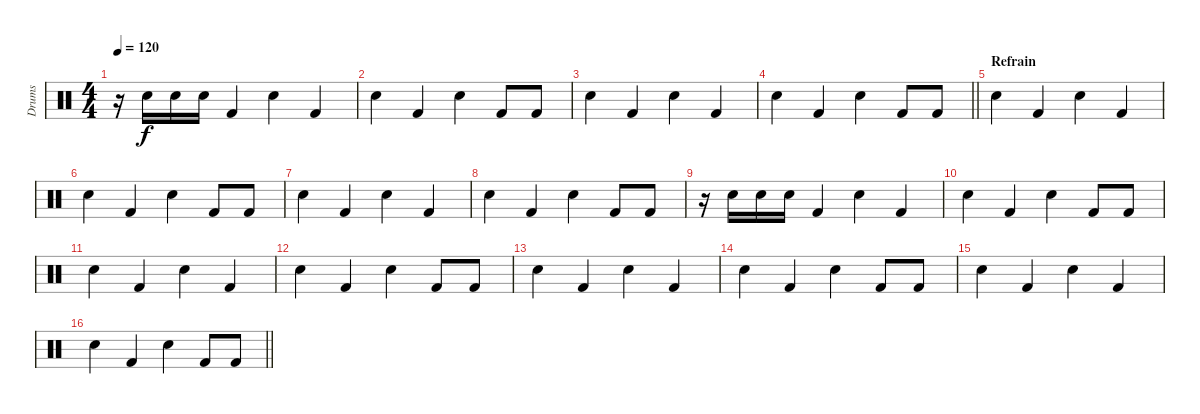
\track ("Drums" "Drums") {instrument percussion}
\staff {score}
\articulation defaults
\ts (4 4)
\tempo 120
\clef neutral
\ks c
r.16{dy f} "Snare (hit) 2".16 "Snare (hit) 2".16 "Snare (hit) 2".16 "Kick (hit) 2".4 "Snare (hit) 2".4 "Kick (hit) 2".4 |
"Snare (hit) 2".4 "Kick (hit) 2".4 "Snare (hit) 2".4 "Kick (hit) 2".8 "Kick (hit) 2".8 |
"Snare (hit) 2".4 "Kick (hit) 2".4 "Snare (hit) 2".4 "Kick (hit) 2".4 |
\barLineRight lightlight "Snare (hit) 2".4 "Kick (hit) 2".4 "Snare (hit) 2".4 "Kick (hit) 2".8 "Kick (hit) 2".8
|
\section ("" "Refrain")
"Snare (hit) 2".4 "Kick (hit) 2".4 "Snare (hit) 2".4 "Kick (hit) 2".4 |
"Snare (hit) 2".4 "Kick (hit) 2".4 "Snare (hit) 2".4 "Kick (hit) 2".8 "Kick (hit) 2".8 |
"Snare (hit) 2".4 "Kick (hit) 2".4 "Snare (hit) 2".4 "Kick (hit) 2".4 |
"Snare (hit) 2".4 "Kick (hit) 2".4 "Snare (hit) 2".4 "Kick (hit) 2".8 "Kick (hit) 2".8 |
r.16 "Snare (hit) 2".16 "Snare (hit) 2".16 "Snare (hit) 2".16 "Kick (hit) 2".4 "Snare (hit) 2".4 "Kick (hit) 2".4 |
"Snare (hit) 2".4 "Kick (hit) 2".4 "Snare (hit) 2".4 "Kick (hit) 2".8 "Kick (hit) 2".8 |
"Snare (hit) 2".4 "Kick (hit) 2".4 "Snare (hit) 2".4 "Kick (hit) 2".4 |
"Snare (hit) 2".4 "Kick (hit) 2".4 "Snare (hit) 2".4 "Kick (hit) 2".8 "Kick (hit) 2".8 |
"Snare (hit) 2".4 "Kick (hit) 2".4 "Snare (hit) 2".4 "Kick (hit) 2".4 |
"Snare (hit) 2".4 "Kick (hit) 2".4 "Snare (hit) 2".4 "Kick (hit) 2".8 "Kick (hit) 2".8 |
"Snare (hit) 2".4 "Kick (hit) 2".4 "Snare (hit) 2".4 "Kick (hit) 2".4 |
\barLineRight lightlight "Snare (hit) 2".4 "Kick (hit) 2".4 "Snare (hit) 2".4 "Kick (hit) 2".8 "Kick (hit) 2".8
